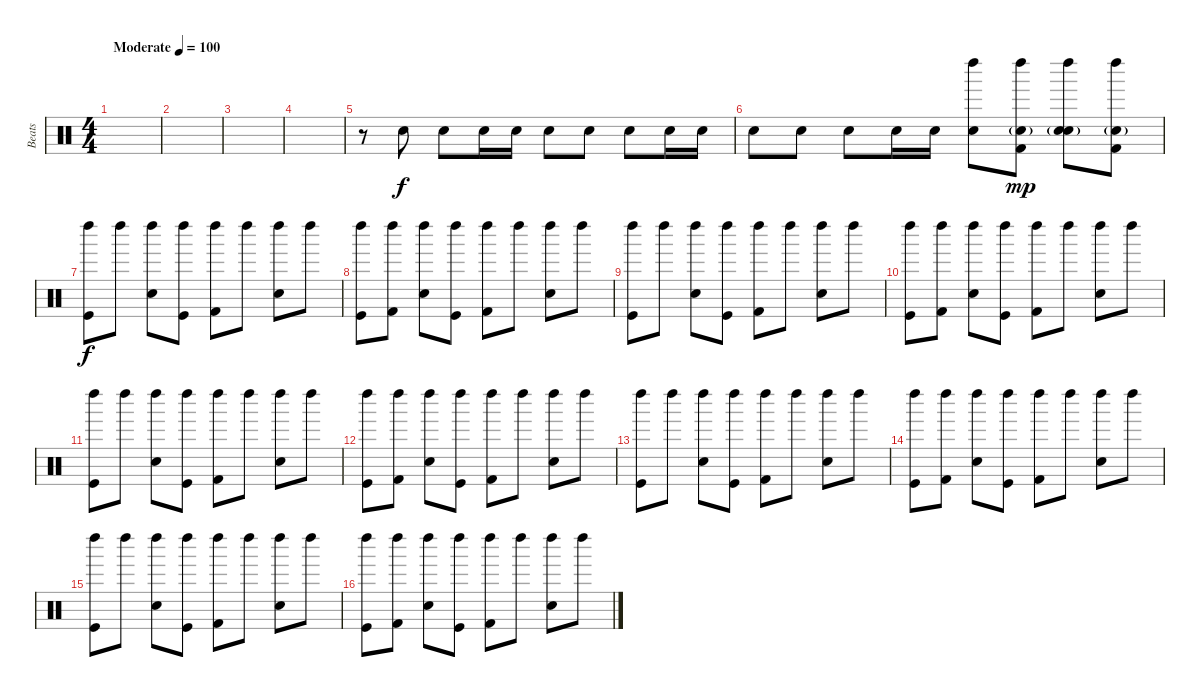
\track ("Beats " "Beats ") {instrument percussion}
\staff {score}
\articulation defaults
\ts (4 4)
\tempo (100 "Moderate")
\clef neutral
\ks c
|
|
|
|
r.8 "Snare (hit) 2".8 "Snare (hit) 2".8 "Snare (hit) 2".16 "Snare (hit) 2".16 "Snare (hit) 2".8 "Snare (hit) 2".8 "Snare (hit) 2".8 "Snare (hit) 2".16 "Snare (hit) 2".16 |
"Snare (hit) 2".8 "Snare (hit) 2".8 "Snare (hit) 2".8 "Snare (hit) 2".16 "Snare (hit) 2".16 ("Left Maraca (hit)" "Snare (hit) 2").8 ("Left Maraca (hit)" "Snare (hit) 2"{g} "Kick (hit) 2").8{dy mp} ("Left Maraca (hit)" "Snare (hit) 2"{g} "Snare (hit) 2").8 ("Left Maraca (hit)" "Snare (hit) 2"{g} "Kick (hit) 2").8 |
("Left Maraca (hit)" "Kick (hit)").8{dy f} "Left Maraca (hit)".8 ("Left Maraca (hit)" "Snare (hit) 2").8 ("Left Maraca (hit)" "Kick (hit)").8 ("Left Maraca (hit)" "Kick (hit) 2").8 "Left Maraca (hit)".8 ("Left Maraca (hit)" "Snare (hit) 2").8 "Left Maraca (hit)".8 |
("Left Maraca (hit)" "Kick (hit)").8 ("Left Maraca (hit)" "Kick (hit) 2").8 ("Left Maraca (hit)" "Snare (hit) 2").8 ("Left Maraca (hit)" "Kick (hit)").8 ("Left Maraca (hit)" "Kick (hit) 2").8 "Left Maraca (hit)".8 ("Left Maraca (hit)" "Snare (hit) 2").8 "Left Maraca (hit)".8 |
("Left Maraca (hit)" "Kick (hit)").8 "Left Maraca (hit)".8 ("Left Maraca (hit)" "Snare (hit) 2").8 ("Left Maraca (hit)" "Kick (hit)").8 ("Left Maraca (hit)" "Kick (hit) 2").8 "Left Maraca (hit)".8 ("Left Maraca (hit)" "Snare (hit) 2").8 "Left Maraca (hit)".8 |
("Left Maraca (hit)" "Kick (hit)").8 ("Left Maraca (hit)" "Kick (hit) 2").8 ("Left Maraca (hit)" "Snare (hit) 2").8 ("Left Maraca (hit)" "Kick (hit)").8 ("Left Maraca (hit)" "Kick (hit) 2").8 "Left Maraca (hit)".8 ("Left Maraca (hit)" "Snare (hit) 2").8 "Left Maraca (hit)".8 |
("Left Maraca (hit)" "Kick (hit)").8 "Left Maraca (hit)".8 ("Left Maraca (hit)" "Snare (hit) 2").8 ("Left Maraca (hit)" "Kick (hit)").8 ("Left Maraca (hit)" "Kick (hit) 2").8 "Left Maraca (hit)".8 ("Left Maraca (hit)" "Snare (hit) 2").8 "Left Maraca (hit)".8 |
("Left Maraca (hit)" "Kick (hit)").8 ("Left Maraca (hit)" "Kick (hit) 2").8 ("Left Maraca (hit)" "Snare (hit) 2").8 ("Left Maraca (hit)" "Kick (hit)").8 ("Left Maraca (hit)" "Kick (hit) 2").8 "Left Maraca (hit)".8 ("Left Maraca (hit)" "Snare (hit) 2").8 "Left Maraca (hit)".8 |
("Left Maraca (hit)" "Kick (hit)").8 "Left Maraca (hit)".8 ("Left Maraca (hit)" "Snare (hit) 2").8 ("Left Maraca (hit)" "Kick (hit)").8 ("Left Maraca (hit)" "Kick (hit) 2").8 "Left Maraca (hit)".8 ("Left Maraca (hit)" "Snare (hit) 2").8 "Left Maraca (hit)".8 |
("Left Maraca (hit)" "Kick (hit)").8 ("Left Maraca (hit)" "Kick (hit) 2").8 ("Left Maraca (hit)" "Snare (hit) 2").8 ("Left Maraca (hit)" "Kick (hit)").8 ("Left Maraca (hit)" "Kick (hit) 2").8 "Left Maraca (hit)".8 ("Left Maraca (hit)" "Snare (hit) 2").8 "Left Maraca (hit)".8 |
("Left Maraca (hit)" "Kick (hit)").8 "Left Maraca (hit)".8 ("Left Maraca (hit)" "Snare (hit) 2").8 ("Left Maraca (hit)" "Kick (hit)").8 ("Left Maraca (hit)" "Kick (hit) 2").8 "Left Maraca (hit)".8 ("Left Maraca (hit)" "Snare (hit) 2").8 "Left Maraca (hit)".8 |
("Left Maraca (hit)" "Kick (hit)").8 ("Left Maraca (hit)" "Kick (hit) 2").8 ("Left Maraca (hit)" "Snare (hit) 2").8 ("Left Maraca (hit)" "Kick (hit)").8 ("Left Maraca (hit)" "Kick (hit) 2").8 "Left Maraca (hit)".8 ("Left Maraca (hit)" "Snare (hit) 2").8 "Left Maraca (hit)".8
